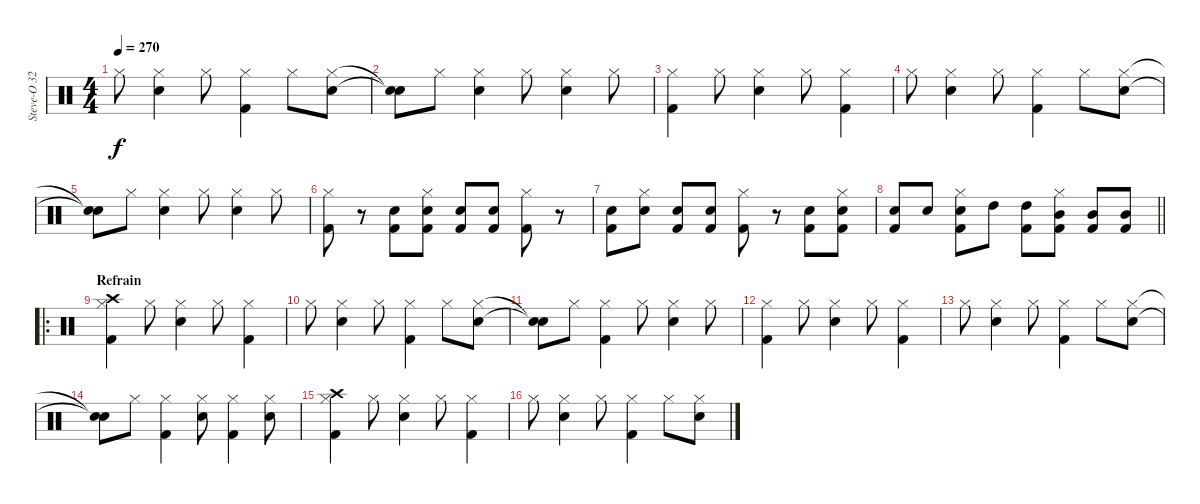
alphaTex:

\track ("Steve-O 32" "Steve-O 32") {instrument percussion}
\staff {score}
\articulation defaults
\ts (4 4)
\tempo 270
\clef neutral
\ks c "Hi-Hat (closed)".8{dy f}
("Electric Snare (hit)" "Hi-Hat (closed)").4 "Hi-Hat (closed)".8 ("Kick (hit) 2" "Hi-Hat (closed)").4 "Hi-Hat (closed)".8 ("Electric Snare (hit)" "Hi-Hat (closed)").8 |
("Snare (hit)"{t} "Snare (hit)"{t}).8 "Hi-Hat (closed)".8 ("Electric Snare (hit)" "Hi-Hat (closed)").4 "Hi-Hat (closed)".8 ("Electric Snare (hit)" "Hi-Hat (closed)").4 "Hi-Hat (closed)".8 |
("Hi-Hat (closed)" "Kick (hit) 2").4 "Hi-Hat (closed)".8 ("Electric Snare (hit)" "Hi-Hat (closed)").4 "Hi-Hat (closed)".8 ("Kick (hit) 2" "Hi-Hat (closed)").4 |
"Hi-Hat (closed)".8 ("Electric Snare (hit)" "Hi-Hat (closed)").4 "Hi-Hat (closed)".8 ("Kick (hit) 2" "Hi-Hat (closed)").4 "Hi-Hat (closed)".8 ("Electric Snare (hit)" "Hi-Hat (closed)").8 |
("Snare (hit)"{t} "Snare (hit)"{t}).8 "Hi-Hat (closed)".8 ("Electric Snare (hit)" "Hi-Hat (closed)").4 "Hi-Hat (closed)".8 ("Electric Snare (hit)" "Hi-Hat (closed)").4 "Hi-Hat (closed)".8 |
("Hi-Hat (closed)" "Kick (hit) 2").8 r.8 ("Electric Snare (hit)" "Kick (hit) 2").8 ("Electric Snare (hit)" "Hi-Hat (closed)" "Kick (hit) 2").8 ("Electric Snare (hit)" "Kick (hit) 2").8 ("Electric Snare (hit)" "Kick (hit) 2").8 ("Hi-Hat (closed)" "Kick (hit) 2").8 r.8 |
("Electric Snare (hit)" "Kick (hit) 2").8 ("Electric Snare (hit)" "Hi-Hat (closed)").8 ("Electric Snare (hit)" "Kick (hit) 2").8 ("Electric Snare (hit)" "Kick (hit) 2").8 ("Hi-Hat (closed)" "Kick (hit) 2").8 r.8 ("Electric Snare (hit)" "Kick (hit) 2").8 ("Electric Snare (hit)" "Hi-Hat (closed)" "Kick (hit) 2").8 |
\barLineRight lightlight
("Electric Snare (hit)" "Kick (hit) 2").8 "Electric Snare (hit)".8 ("Electric Snare (hit)" "Hi-Hat (closed)" "Kick (hit) 2").8 "High Tom (hit)".8 ("High Tom (hit)" "Kick (hit) 2").8 ("Mid Tom (hit)" "Hi-Hat (closed)" "Kick (hit) 2").8 ("Mid Tom (hit)" "Kick (hit) 2").8 ("Mid Tom (hit)" "Kick (hit) 2").8 |
\ro
\section ("" "Refrain")
("Crash high (hit)" "Hi-Hat (closed)" "Kick (hit) 2").4 "Hi-Hat (closed)".8 ("Electric Snare (hit)" "Hi-Hat (closed)").4 "Hi-Hat (closed)".8 ("Kick (hit) 2" "Hi-Hat (closed)").4 |
"Hi-Hat (closed)".8 ("Electric Snare (hit)" "Hi-Hat (closed)").4 "Hi-Hat (closed)".8 ("Kick (hit) 2" "Hi-Hat (closed)").4 "Hi-Hat (closed)".8 ("Electric Snare (hit)" "Hi-Hat (closed)").8 |
("Snare (hit)"{t} "Snare (hit)"{t}).8 "Hi-Hat (closed)".8 ("Kick (hit) 2" "Hi-Hat (closed)").4 "Hi-Hat (closed)".8 ("Electric Snare (hit)" "Hi-Hat (closed)").4 "Hi-Hat (closed)".8 |
("Hi-Hat (closed)" "Kick (hit) 2").4 "Hi-Hat (closed)".8 ("Electric Snare (hit)" "Hi-Hat (closed)").4 "Hi-Hat (closed)".8 ("Kick (hit) 2" "Hi-Hat (closed)").4 |
"Hi-Hat (closed)".8 ("Electric Snare (hit)" "Hi-Hat (closed)").4 "Hi-Hat (closed)".8 ("Kick (hit) 2" "Hi-Hat (closed)").4 "Hi-Hat (closed)".8 ("Electric Snare (hit)" "Hi-Hat (closed)").8 |
("Snare (hit)"{t} "Snare (hit)"{t}).8 "Hi-Hat (closed)".8 ("Kick (hit) 2" "Hi-Hat (closed)").4 ("Electric Snare (hit)" "Hi-Hat (closed)").8 ("Kick (hit) 2" "Hi-Hat (closed)").4 ("Electric Snare (hit)" "Hi-Hat (closed)").8 |
("Crash high (hit)" "Hi-Hat (closed)" "Kick (hit) 2").4 "Hi-Hat (closed)".8 ("Electric Snare (hit)" "Hi-Hat (closed)").4 "Hi-Hat (closed)".8 ("Kick (hit) 2" "Hi-Hat (closed)").4 |
"Hi-Hat (closed)".8 ("Electric Snare (hit)" "Hi-Hat (closed)").4 "Hi-Hat (closed)".8 ("Kick (hit) 2" "Hi-Hat (closed)").4 "Hi-Hat (closed)".8 ("Electric Snare (hit)" "Hi-Hat (closed)").8
